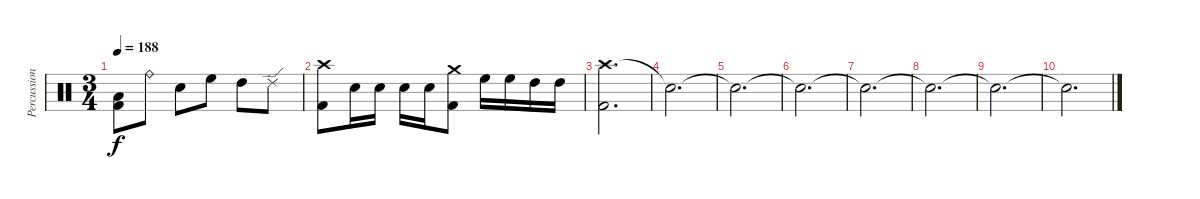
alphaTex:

\track ("Percussion" "Percussion") {instrument percussion}
\staff {score}
\articulation defaults
\ts (3 4)
\tempo 188
\clef neutral
\ks c
("Low Floor Tom (hit)" "Kick (hit) 2").8{dy f} "Ride (bell)".8 "Electric Snare (hit)".8 "High Floor Tom (hit)".8 "High Tom (hit)".8 "Ride (edge) 2".8 |
("Crash high (hit)" "Kick (hit) 2").8 "Electric Snare (hit)".16 "Electric Snare (hit)".16 "Electric Snare (hit)".16 "Electric Snare (hit)".16 ("Crash medium (hit)" "Kick (hit) 2").8 "High Floor Tom (hit)".16 "High Floor Tom (hit)".16 "High Tom (hit)".16 "High Tom (hit)".16 |
("Crash high (hit)" "Kick (hit) 2").2{d} |
"Snare (hit)"{t}.2{d} |
"Snare (hit)"{t}.2{d} |
"Snare (hit)"{t}.2{d} |
"Snare (hit)"{t}.2{d volume 0} |
"Snare (hit)"{t}.2{d} |
"Snare (hit)"{t}.2{d} |
"Snare (hit)"{t}.2{d}
